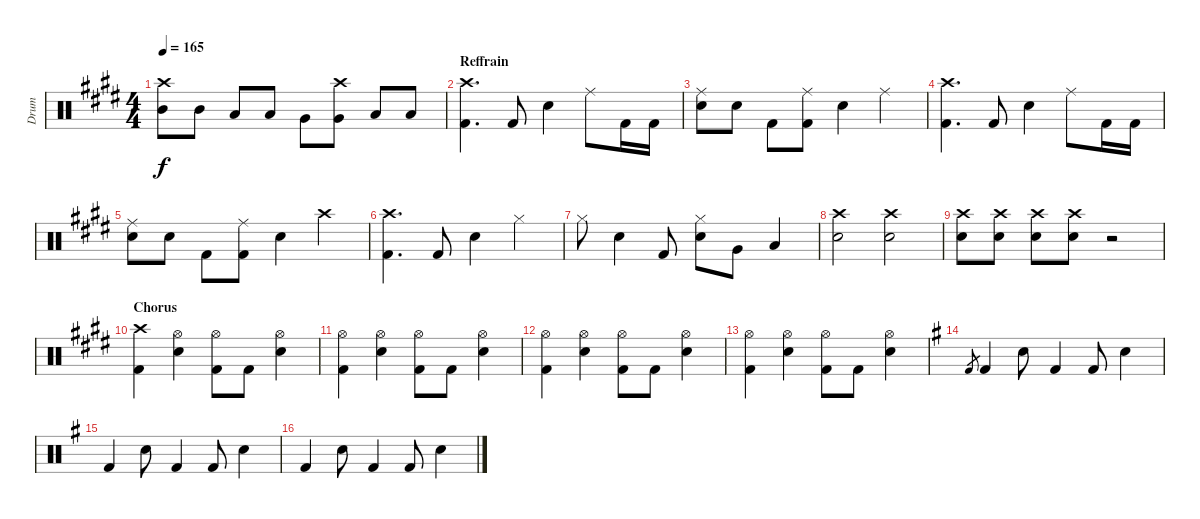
\track ("Drum" "Drum") {instrument percussion}
\staff {score}
\articulation defaults
\ts (4 4)
\tempo 165
\clef neutral
\ks e
("Crash high (hit)" "Mid Tom (hit)").8{dy f} "Mid Tom (hit)".8 "Low Tom (hit)".8 "Low Tom (hit)".8 "Very Low Tom (hit)".8 ("Crash high (hit)" "Very Low Tom (hit)").8 "Low Floor Tom (hit)".8 "Low Floor Tom (hit)".8 |
\section ("" "Reffrain")
("Crash high (hit)" "Kick (hit) 2").4{d} "Kick (hit) 2".8 "Electric Snare (hit)".4 "Ride (middle)".8 "Kick (hit) 2".16 "Kick (hit) 2".16 |
("Ride (middle)" "Electric Snare (hit)").8 "Electric Snare (hit)".8 "Kick (hit) 2".8 ("Ride (middle)" "Kick (hit) 2").8 "Electric Snare (hit)".4 "Ride (middle)".4 |
("Crash high (hit)" "Kick (hit) 2").4{d} "Kick (hit) 2".8 "Electric Snare (hit)".4 "Ride (middle)".8 "Kick (hit) 2".16 "Kick (hit) 2".16 |
("Ride (middle)" "Electric Snare (hit)").8 "Electric Snare (hit)".8 "Kick (hit) 2".8 ("Ride (middle)" "Kick (hit) 2").8 "Electric Snare (hit)".4 "Crash high (hit)".4 |
("Crash high (hit)" "Kick (hit) 2").4{d} "Kick (hit) 2".8 "Electric Snare (hit)".4 "Hi-Hat (closed)".4 |
"Hi-Hat (closed)".8 "Electric Snare (hit)".4 "Kick (hit) 2".8 ("Hi-Hat (closed)" "Electric Snare (hit)").8 "Very Low Tom (hit)".8 "Low Floor Tom (hit)".4 |
("Crash high (hit)" "Electric Snare (hit)").2 ("Crash high (hit)" "Electric Snare (hit)").2 |
("Crash high (hit)" "Electric Snare (hit)").8 ("Crash high (hit)" "Electric Snare (hit)").8 ("Crash high (hit)" "Electric Snare (hit)").8 ("Crash high (hit)" "Electric Snare (hit)").8 r.2 |
\section ("" "Chorus")
("Crash high (hit)" "Kick (hit) 2").4 ("Hi-Hat (open)" "Electric Snare (hit)").4 ("Hi-Hat (open)" "Kick (hit) 2").8 "Kick (hit) 2".8 ("Hi-Hat (open)" "Electric Snare (hit)").4 |
("Hi-Hat (open)" "Kick (hit) 2").4 ("Hi-Hat (open)" "Electric Snare (hit)").4 ("Hi-Hat (open)" "Kick (hit) 2").8 "Kick (hit) 2".8 ("Hi-Hat (open)" "Electric Snare (hit)").4 |
("Hi-Hat (open)" "Kick (hit) 2").4 ("Hi-Hat (open)" "Electric Snare (hit)").4 ("Hi-Hat (open)" "Kick (hit) 2").8 "Kick (hit) 2".8 ("Hi-Hat (open)" "Electric Snare (hit)").4 |
("Hi-Hat (open)" "Kick (hit) 2").4 ("Hi-Hat (open)" "Electric Snare (hit)").4 ("Hi-Hat (open)" "Kick (hit) 2").8 "Kick (hit) 2".8 ("Hi-Hat (open)" "Electric Snare (hit)").4 |
\ks g "Kick (hit) 2".8{gr} "Kick (hit) 2".4 "Electric Snare (hit)".8 "Kick (hit) 2".4 "Kick (hit) 2".8 "Electric Snare (hit)".4
|
"Kick (hit) 2".4 "Electric Snare (hit)".8 "Kick (hit) 2".4 "Kick (hit) 2".8 "Electric Snare (hit)".4 |
"Kick (hit) 2".4 "Electric Snare (hit)".8 "Kick (hit) 2".4 "Kick (hit) 2".8 "Electric Snare (hit)".4
